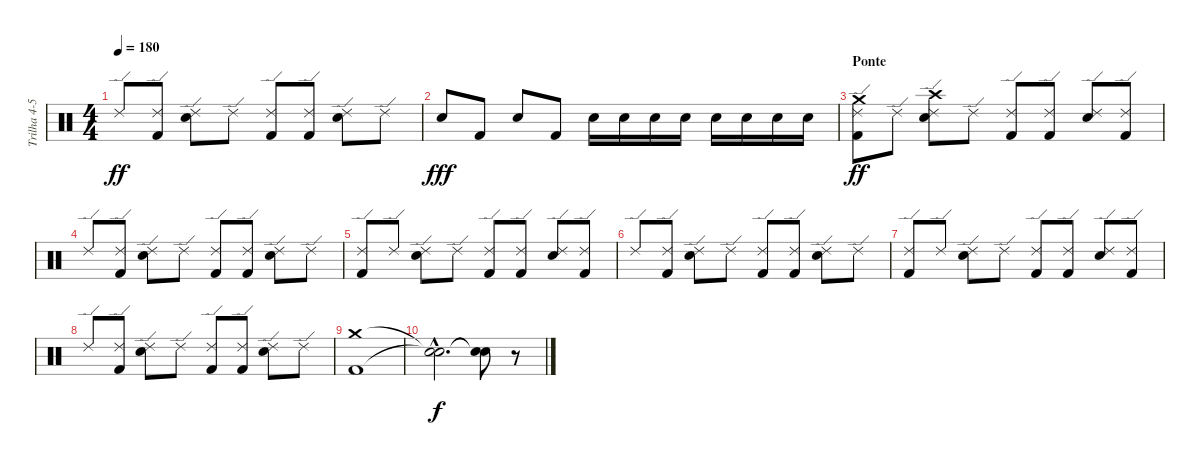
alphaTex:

\track ("Trilha 4-5" "Trilha 4-5") {instrument percussion}
\staff {score}
\articulation defaults
\ts (4 4)
\tempo 180
\clef neutral
\ks c "Ride (edge) 2".8{dy ff}
("Kick (hit) 2" "Ride (edge) 2").8 ("Snare (hit) 2" "Ride (edge) 2").8 "Ride (edge) 2".8 ("Kick (hit) 2" "Ride (edge) 2").8 ("Kick (hit) 2" "Ride (edge) 2").8 ("Snare (hit) 2" "Ride (edge) 2").8 "Ride (edge) 2".8 |
"Snare (hit) 2".8{dy fff} "Kick (hit) 2".8 "Snare (hit) 2".8 "Kick (hit) 2".8 "Snare (hit) 2".16 "Snare (hit) 2".16 "Snare (hit) 2".16 "Snare (hit) 2".16 "Snare (hit) 2".16 "Snare (hit) 2".16 "Snare (hit) 2".16 "Snare (hit) 2".16 |
\section ("" "Ponte")
("Kick (hit) 2" "Crash medium (hit)" "Ride (edge) 2").8{dy ff} "Ride (edge) 2".8 ("Snare (hit) 2" "Crash high (hit)" "Ride (edge) 2").8 "Ride (edge) 2".8 ("Kick (hit) 2" "Ride (edge) 2").8 ("Kick (hit) 2" "Ride (edge) 2").8 ("Snare (hit) 2" "Ride (edge) 2").8 ("Kick (hit) 2" "Ride (edge) 2").8 |
"Ride (edge) 2".8 ("Kick (hit) 2" "Ride (edge) 2").8 ("Snare (hit) 2" "Ride (edge) 2").8 "Ride (edge) 2".8 ("Kick (hit) 2" "Ride (edge) 2").8 ("Kick (hit) 2" "Ride (edge) 2").8 ("Snare (hit) 2" "Ride (edge) 2").8 "Ride (edge) 2".8 |
("Kick (hit) 2" "Ride (edge) 2").8 "Ride (edge) 2".8 ("Snare (hit) 2" "Ride (edge) 2").8 "Ride (edge) 2".8 ("Kick (hit) 2" "Ride (edge) 2").8 ("Kick (hit) 2" "Ride (edge) 2").8 ("Snare (hit) 2" "Ride (edge) 2").8 ("Kick (hit) 2" "Ride (edge) 2").8 |
"Ride (edge) 2".8 ("Kick (hit) 2" "Ride (edge) 2").8 ("Snare (hit) 2" "Ride (edge) 2").8 "Ride (edge) 2".8 ("Kick (hit) 2" "Ride (edge) 2").8 ("Kick (hit) 2" "Ride (edge) 2").8 ("Snare (hit) 2" "Ride (edge) 2").8 "Ride (edge) 2".8 |
("Kick (hit) 2" "Ride (edge) 2").8 "Ride (edge) 2".8 ("Snare (hit) 2" "Ride (edge) 2").8 "Ride (edge) 2".8 ("Kick (hit) 2" "Ride (edge) 2").8 ("Kick (hit) 2" "Ride (edge) 2").8 ("Snare (hit) 2" "Ride (edge) 2").8 ("Kick (hit) 2" "Ride (edge) 2").8 |
"Ride (edge) 2".8 ("Kick (hit) 2" "Ride (edge) 2").8 ("Snare (hit) 2" "Ride (edge) 2").8 "Ride (edge) 2".8 ("Kick (hit) 2" "Ride (edge) 2").8 ("Kick (hit) 2" "Ride (edge) 2").8 ("Snare (hit) 2" "Ride (edge) 2").8 "Ride (edge) 2".8 |
("Kick (hit) 2" "Crash medium (hit)").1 |
("Snare (hit)"{hac t} "Snare (hit)"{hac t}).2{d dy f} ("Snare (hit)"{t} "Snare (hit)"{t}).8 r.8
